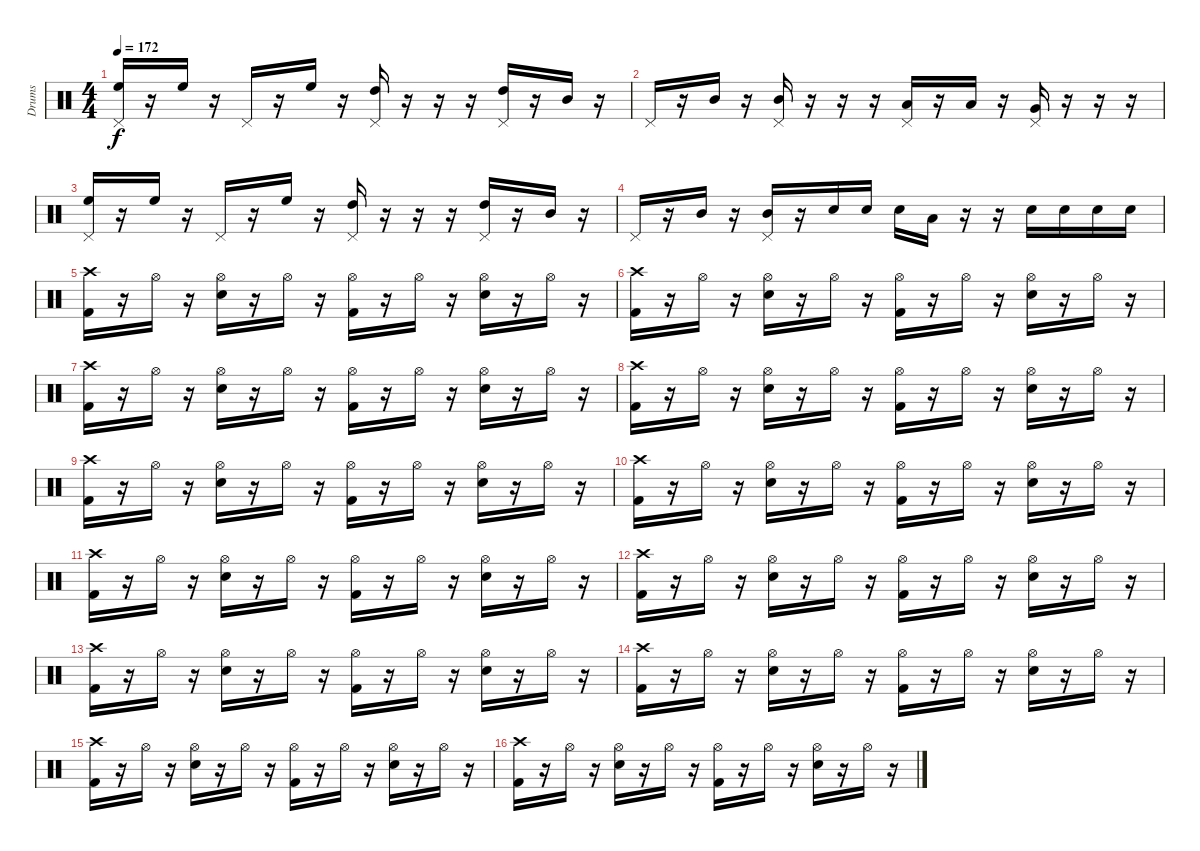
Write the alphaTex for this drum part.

\track ("Drums" "Drums") {instrument percussion}
\staff {score}
\articulation defaults
\ts (4 4)
\tempo 172
\clef neutral
\ks c
("Pedal Hi-Hat (hit)" "High Floor Tom (hit)").16{dy f} r.16 "High Floor Tom (hit)".16 r.16 "Pedal Hi-Hat (hit)".16 r.16 "High Floor Tom (hit)".16 r.16 ("Pedal Hi-Hat (hit)" "High Tom (hit)").16 r.16 r.16 r.16 ("Pedal Hi-Hat (hit)" "High Tom (hit)").16 r.16 "Mid Tom (hit)".16 r.16 |
"Pedal Hi-Hat (hit)".16 r.16 "Mid Tom (hit)".16 r.16 ("Pedal Hi-Hat (hit)" "Mid Tom (hit)").16 r.16 r.16 r.16 ("Pedal Hi-Hat (hit)" "Low Tom (hit)").16 r.16 "Low Tom (hit)".16 r.16 ("Pedal Hi-Hat (hit)" "Very Low Tom (hit)").16 r.16 r.16 r.16 |
("Pedal Hi-Hat (hit)" "High Floor Tom (hit)").16 r.16 "High Floor Tom (hit)".16 r.16 "Pedal Hi-Hat (hit)".16 r.16 "High Floor Tom (hit)".16 r.16 ("Pedal Hi-Hat (hit)" "High Tom (hit)").16 r.16 r.16 r.16 ("Pedal Hi-Hat (hit)" "High Tom (hit)").16 r.16 "Mid Tom (hit)".16 r.16 |
"Pedal Hi-Hat (hit)".16 r.16 "Mid Tom (hit)".16 r.16 ("Pedal Hi-Hat (hit)" "Mid Tom (hit)").16 r.16 "Electric Snare (hit)".16 "Electric Snare (hit)".16 "Electric Snare (hit)".16 "Low Tom (hit)".16 r.16 r.16 "Electric Snare (hit)".16 "Electric Snare (hit)".16 "Electric Snare (hit)".16 "Electric Snare (hit)".16 |
("Crash high (hit)" "Kick (hit) 2").16 r.16 "Hi-Hat (open)".16 r.16 ("Hi-Hat (open)" "Electric Snare (hit)").16 r.16 "Hi-Hat (open)".16 r.16 ("Hi-Hat (open)" "Kick (hit) 2").16 r.16 "Hi-Hat (open)".16 r.16 ("Hi-Hat (open)" "Electric Snare (hit)").16 r.16 "Hi-Hat (open)".16 r.16 |
("Crash high (hit)" "Kick (hit) 2").16 r.16 "Hi-Hat (open)".16 r.16 ("Hi-Hat (open)" "Electric Snare (hit)").16 r.16 "Hi-Hat (open)".16 r.16 ("Hi-Hat (open)" "Kick (hit) 2").16 r.16 "Hi-Hat (open)".16 r.16 ("Hi-Hat (open)" "Electric Snare (hit)").16 r.16 "Hi-Hat (open)".16 r.16 |
("Crash high (hit)" "Kick (hit) 2").16 r.16 "Hi-Hat (open)".16 r.16 ("Hi-Hat (open)" "Electric Snare (hit)").16 r.16 "Hi-Hat (open)".16 r.16 ("Hi-Hat (open)" "Kick (hit) 2").16 r.16 "Hi-Hat (open)".16 r.16 ("Hi-Hat (open)" "Electric Snare (hit)").16 r.16 "Hi-Hat (open)".16 r.16 |
("Crash high (hit)" "Kick (hit) 2").16 r.16 "Hi-Hat (open)".16 r.16 ("Hi-Hat (open)" "Electric Snare (hit)").16 r.16 "Hi-Hat (open)".16 r.16 ("Hi-Hat (open)" "Kick (hit) 2").16 r.16 "Hi-Hat (open)".16 r.16 ("Hi-Hat (open)" "Electric Snare (hit)").16 r.16 "Hi-Hat (open)".16 r.16 |
("Crash high (hit)" "Kick (hit) 2").16 r.16 "Hi-Hat (open)".16 r.16 ("Hi-Hat (open)" "Electric Snare (hit)").16 r.16 "Hi-Hat (open)".16 r.16 ("Hi-Hat (open)" "Kick (hit) 2").16 r.16 "Hi-Hat (open)".16 r.16 ("Hi-Hat (open)" "Electric Snare (hit)").16 r.16 "Hi-Hat (open)".16 r.16 |
("Crash high (hit)" "Kick (hit) 2").16 r.16 "Hi-Hat (open)".16 r.16 ("Hi-Hat (open)" "Electric Snare (hit)").16 r.16 "Hi-Hat (open)".16 r.16 ("Hi-Hat (open)" "Kick (hit) 2").16 r.16 "Hi-Hat (open)".16 r.16 ("Hi-Hat (open)" "Electric Snare (hit)").16 r.16 "Hi-Hat (open)".16 r.16 |
("Crash high (hit)" "Kick (hit) 2").16 r.16 "Hi-Hat (open)".16 r.16 ("Hi-Hat (open)" "Electric Snare (hit)").16 r.16 "Hi-Hat (open)".16 r.16 ("Hi-Hat (open)" "Kick (hit) 2").16 r.16 "Hi-Hat (open)".16 r.16 ("Hi-Hat (open)" "Electric Snare (hit)").16 r.16 "Hi-Hat (open)".16 r.16 |
("Crash high (hit)" "Kick (hit) 2").16 r.16 "Hi-Hat (open)".16 r.16 ("Hi-Hat (open)" "Electric Snare (hit)").16 r.16 "Hi-Hat (open)".16 r.16 ("Hi-Hat (open)" "Kick (hit) 2").16 r.16 "Hi-Hat (open)".16 r.16 ("Hi-Hat (open)" "Electric Snare (hit)").16 r.16 "Hi-Hat (open)".16 r.16 |
("Crash high (hit)" "Kick (hit) 2").16 r.16 "Hi-Hat (open)".16 r.16 ("Hi-Hat (open)" "Electric Snare (hit)").16 r.16 "Hi-Hat (open)".16 r.16 ("Hi-Hat (open)" "Kick (hit) 2").16 r.16 "Hi-Hat (open)".16 r.16 ("Hi-Hat (open)" "Electric Snare (hit)").16 r.16 "Hi-Hat (open)".16 r.16 |
("Crash high (hit)" "Kick (hit) 2").16 r.16 "Hi-Hat (open)".16 r.16 ("Hi-Hat (open)" "Electric Snare (hit)").16 r.16 "Hi-Hat (open)".16 r.16 ("Hi-Hat (open)" "Kick (hit) 2").16 r.16 "Hi-Hat (open)".16 r.16 ("Hi-Hat (open)" "Electric Snare (hit)").16 r.16 "Hi-Hat (open)".16 r.16 |
("Crash high (hit)" "Kick (hit) 2").16 r.16 "Hi-Hat (open)".16 r.16 ("Hi-Hat (open)" "Electric Snare (hit)").16 r.16 "Hi-Hat (open)".16 r.16 ("Hi-Hat (open)" "Kick (hit) 2").16 r.16 "Hi-Hat (open)".16 r.16 ("Hi-Hat (open)" "Electric Snare (hit)").16 r.16 "Hi-Hat (open)".16 r.16 |
("Crash high (hit)" "Kick (hit) 2").16 r.16 "Hi-Hat (open)".16 r.16 ("Hi-Hat (open)" "Electric Snare (hit)").16 r.16 "Hi-Hat (open)".16 r.16 ("Hi-Hat (open)" "Kick (hit) 2").16 r.16 "Hi-Hat (open)".16 r.16 ("Hi-Hat (open)" "Electric Snare (hit)").16 r.16 "Hi-Hat (open)".16 r.16
